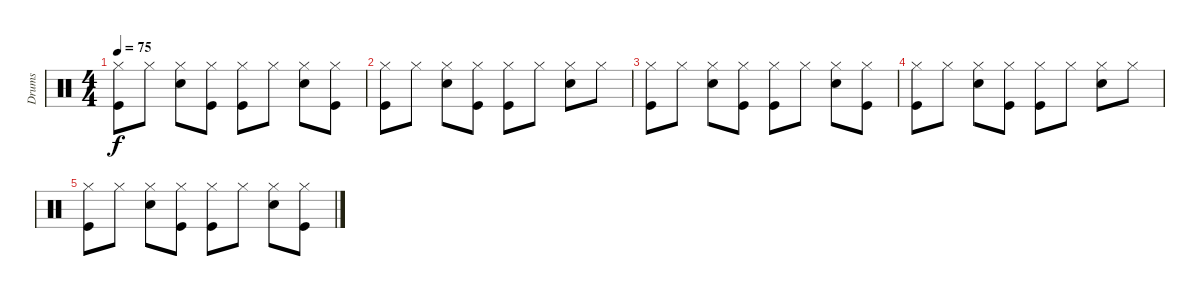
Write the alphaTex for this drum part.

\track ("Drums" "Drums") {instrument percussion}
\staff {score}
\articulation defaults
\ts (4 4)
\tempo 75
\clef neutral
\ks c
("Hi-Hat (closed)" "Kick (hit)").8{dy f} "Hi-Hat (closed)".8 ("Hi-Hat (closed)" "Snare (hit) 2").8 ("Hi-Hat (closed)" "Kick (hit)").8 ("Hi-Hat (closed)" "Kick (hit)").8 "Hi-Hat (closed)".8 ("Hi-Hat (closed)" "Snare (hit) 2").8 ("Hi-Hat (closed)" "Kick (hit)").8 |
("Hi-Hat (closed)" "Kick (hit)").8 "Hi-Hat (closed)".8 ("Hi-Hat (closed)" "Snare (hit) 2").8 ("Hi-Hat (closed)" "Kick (hit)").8 ("Hi-Hat (closed)" "Kick (hit)").8 "Hi-Hat (closed)".8 ("Hi-Hat (closed)" "Snare (hit) 2").8 "Hi-Hat (closed)".8 |
("Hi-Hat (closed)" "Kick (hit)").8 "Hi-Hat (closed)".8 ("Hi-Hat (closed)" "Snare (hit) 2").8 ("Hi-Hat (closed)" "Kick (hit)").8 ("Hi-Hat (closed)" "Kick (hit)").8 "Hi-Hat (closed)".8 ("Hi-Hat (closed)" "Snare (hit) 2").8 ("Hi-Hat (closed)" "Kick (hit)").8 |
("Hi-Hat (closed)" "Kick (hit)").8 "Hi-Hat (closed)".8 ("Hi-Hat (closed)" "Snare (hit) 2").8 ("Hi-Hat (closed)" "Kick (hit)").8 ("Hi-Hat (closed)" "Kick (hit)").8 "Hi-Hat (closed)".8 ("Hi-Hat (closed)" "Snare (hit) 2").8 "Hi-Hat (closed)".8 |
("Hi-Hat (closed)" "Kick (hit)").8 "Hi-Hat (closed)".8 ("Hi-Hat (closed)" "Snare (hit) 2").8 ("Hi-Hat (closed)" "Kick (hit)").8 ("Hi-Hat (closed)" "Kick (hit)").8 "Hi-Hat (closed)".8 ("Hi-Hat (closed)" "Snare (hit) 2").8 ("Hi-Hat (closed)" "Kick (hit)").8
